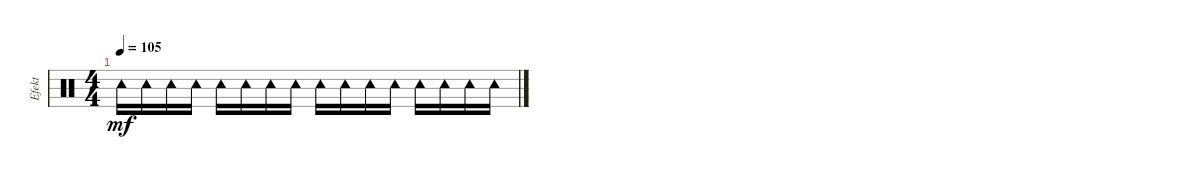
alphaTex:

\track ("Efekt" "Efekt") {instrument percussion}
\staff {score}
\articulation defaults
\ts (4 4)
\tempo 105
\clef neutral
\ks c "Tambourine (hit)".16{dy mf} "Tambourine (hit)".16 "Tambourine (hit)".16 "Tambourine (hit)".16 "Tambourine (hit)".16 "Tambourine (hit)".16 "Tambourine (hit)".16 "Tambourine (hit)".16 "Tambourine (hit)".16 "Tambourine (hit)".16 "Tambourine (hit)".16 "Tambourine (hit)".16 "Tambourine (hit)".16 "Tambourine (hit)".16 "Tambourine (hit)".16 "Tambourine (hit)".16
